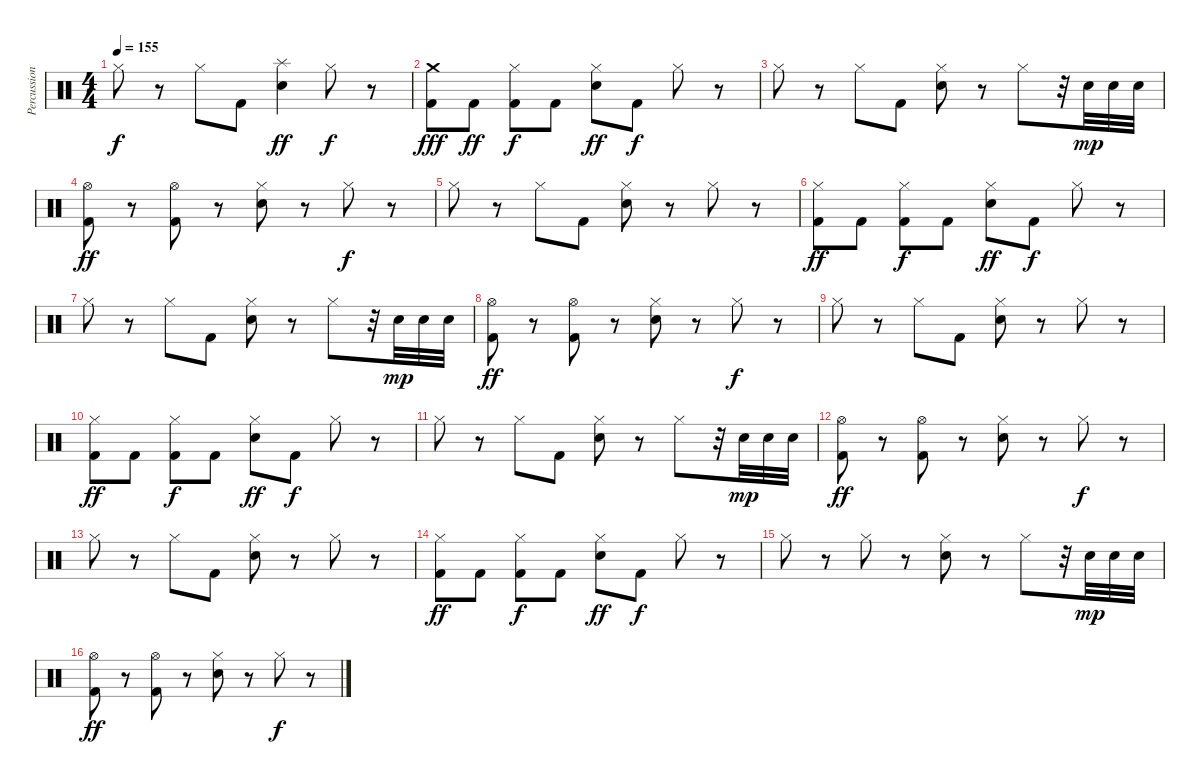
\track ("Percussions" "Percussion") {instrument percussion}
\staff {score}
\articulation defaults
\ts (4 4)
\tempo 155
\clef neutral
\ks c "Hi-Hat (closed)".8{dy f}
r.8 "Hi-Hat (closed)".8 "Kick (hit) 2".8 ("Splash (hit)" "Electric Snare (hit)").4{dy ff} "Hi-Hat (closed)".8{dy f} r.8 |
("Crash medium (hit)" "Kick (hit) 2").8{dy fff} "Kick (hit) 2".8{dy ff} ("Hi-Hat (closed)" "Kick (hit) 2").8{dy f} "Kick (hit) 2".8 ("Hi-Hat (closed)" "Electric Snare (hit)").8{dy ff} "Kick (hit) 2".8{dy f} "Hi-Hat (closed)".8 r.8 |
"Hi-Hat (closed)".8 r.8 "Hi-Hat (closed)".8 "Kick (hit) 2".8 ("Hi-Hat (closed)" "Electric Snare (hit)").8 r.8 "Hi-Hat (closed)".8 r.32 "Electric Snare (hit)".32{dy mp} "Electric Snare (hit)".32 "Electric Snare (hit)".32 |
("Hi-Hat (open)" "Kick (hit) 2").8{dy ff} r.8 ("Hi-Hat (open)" "Kick (hit) 2").8 r.8 ("Hi-Hat (closed)" "Electric Snare (hit)").8 r.8 "Hi-Hat (closed)".8{dy f} r.8 |
"Hi-Hat (closed)".8 r.8 "Hi-Hat (closed)".8 "Kick (hit) 2".8 ("Hi-Hat (closed)" "Electric Snare (hit)").8 r.8 "Hi-Hat (closed)".8 r.8 |
("Hi-Hat (closed)" "Kick (hit) 2").8{dy ff} "Kick (hit) 2".8 ("Hi-Hat (closed)" "Kick (hit) 2").8{dy f} "Kick (hit) 2".8 ("Hi-Hat (closed)" "Electric Snare (hit)").8{dy ff} "Kick (hit) 2".8{dy f} "Hi-Hat (closed)".8 r.8 |
"Hi-Hat (closed)".8 r.8 "Hi-Hat (closed)".8 "Kick (hit) 2".8 ("Hi-Hat (closed)" "Electric Snare (hit)").8 r.8 "Hi-Hat (closed)".8 r.32 "Electric Snare (hit)".32{dy mp} "Electric Snare (hit)".32 "Electric Snare (hit)".32 |
("Hi-Hat (open)" "Kick (hit) 2").8{dy ff} r.8 ("Hi-Hat (open)" "Kick (hit) 2").8 r.8 ("Hi-Hat (closed)" "Electric Snare (hit)").8 r.8 "Hi-Hat (closed)".8{dy f} r.8 |
"Hi-Hat (closed)".8 r.8 "Hi-Hat (closed)".8 "Kick (hit) 2".8 ("Hi-Hat (closed)" "Electric Snare (hit)").8 r.8 "Hi-Hat (closed)".8 r.8 |
("Hi-Hat (closed)" "Kick (hit) 2").8{dy ff} "Kick (hit) 2".8 ("Hi-Hat (closed)" "Kick (hit) 2").8{dy f} "Kick (hit) 2".8 ("Hi-Hat (closed)" "Electric Snare (hit)").8{dy ff} "Kick (hit) 2".8{dy f} "Hi-Hat (closed)".8 r.8 |
"Hi-Hat (closed)".8 r.8 "Hi-Hat (closed)".8 "Kick (hit) 2".8 ("Hi-Hat (closed)" "Electric Snare (hit)").8 r.8 "Hi-Hat (closed)".8 r.32 "Electric Snare (hit)".32{dy mp} "Electric Snare (hit)".32 "Electric Snare (hit)".32 |
("Hi-Hat (open)" "Kick (hit) 2").8{dy ff} r.8 ("Hi-Hat (open)" "Kick (hit) 2").8 r.8 ("Hi-Hat (closed)" "Electric Snare (hit)").8 r.8 "Hi-Hat (closed)".8{dy f} r.8 |
"Hi-Hat (closed)".8 r.8 "Hi-Hat (closed)".8 "Kick (hit) 2".8 ("Hi-Hat (closed)" "Electric Snare (hit)").8 r.8 "Hi-Hat (closed)".8 r.8 |
("Hi-Hat (closed)" "Kick (hit) 2").8{dy ff} "Kick (hit) 2".8 ("Hi-Hat (closed)" "Kick (hit) 2").8{dy f} "Kick (hit) 2".8 ("Hi-Hat (closed)" "Electric Snare (hit)").8{dy ff} "Kick (hit) 2".8{dy f} "Hi-Hat (closed)".8 r.8 |
"Hi-Hat (closed)".8 r.8 "Hi-Hat (closed)".8 r.8 ("Hi-Hat (closed)" "Electric Snare (hit)").8 r.8 "Hi-Hat (closed)".8 r.32 "Electric Snare (hit)".32{dy mp} "Electric Snare (hit)".32 "Electric Snare (hit)".32 |
("Hi-Hat (open)" "Kick (hit) 2").8{dy ff} r.8 ("Hi-Hat (open)" "Kick (hit) 2").8 r.8 ("Hi-Hat (closed)" "Electric Snare (hit)").8 r.8 "Hi-Hat (closed)".8{dy f} r.8
